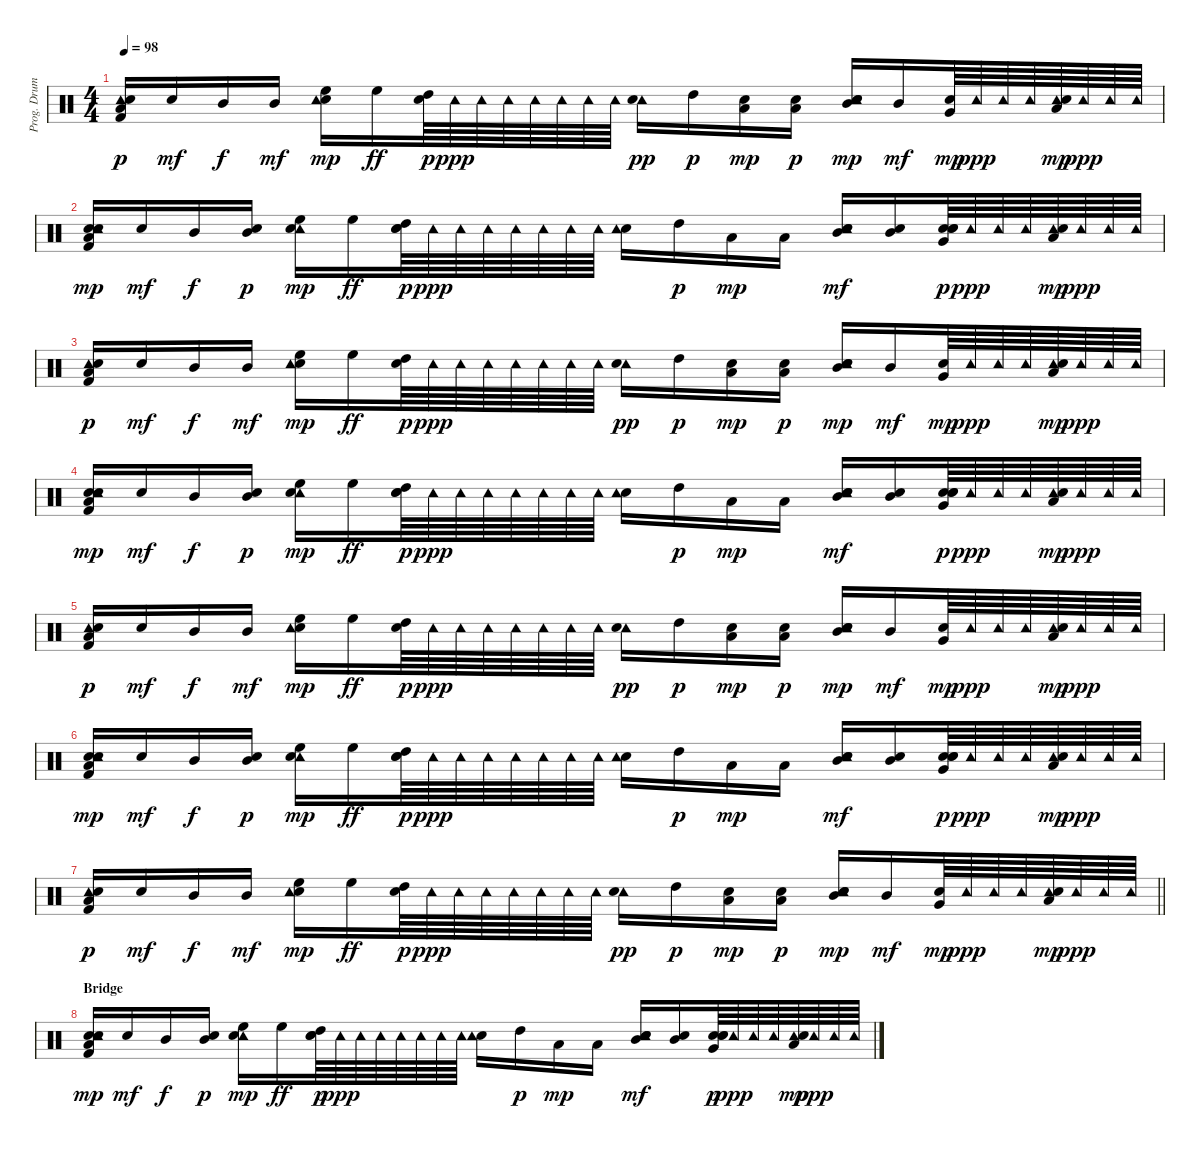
\track ("Prog. Drums" "Prog. Drum") {instrument percussion}
\staff {score}
\articulation defaults
\ts (4 4)
\tempo 98
\clef neutral
\ks c
("Tambourine (hit)" "Snare (hit)" "Low Floor Tom (hit)" "Kick (hit) 2").16{dy p} "Snare (hit)".16{dy mf} "Mid Tom (hit)".16{dy f} "Mid Tom (hit)".16{dy mf} ("Snare (hit) 2" "High Floor Tom (hit)" "Tambourine (hit)").16{dy mp} "High Floor Tom (hit)".16{dy ff} ("High Tom (hit)" "Snare (hit)").64{dy p} "Tambourine (hit)".64{dy ppp} "Tambourine (hit)".64 "Tambourine (hit)".64 "Tambourine (hit)".64 "Tambourine (hit)".64 "Tambourine (hit)".64 "Tambourine (hit)".64 ("Tambourine (hit)" "Snare (hit) 2").16{dy pp} "High Tom (hit)".16{dy p} ("Snare (hit)" "Low Tom (hit)").16{dy mp} ("Low Tom (hit)" "Snare (hit)").16{dy p} ("Snare (hit) 2" "Mid Tom (hit)" "Snare (hit)" "Tambourine (hit)").16{dy mp} "Mid Tom (hit)".16{dy mf} ("Snare (hit)" "Very Low Tom (hit)").64{dy mp} "Tambourine (hit)".64{dy ppp} "Tambourine (hit)".64 "Tambourine (hit)".64 ("Tambourine (hit)" "Snare (hit) 2" "Low Tom (hit)").64{dy mp} "Tambourine (hit)".64{dy ppp} "Tambourine (hit)".64 "Tambourine (hit)".64 |
("Snare (hit)" "Snare (hit)" "Tambourine (hit)" "Kick (hit) 2" "Low Floor Tom (hit)").16{dy mp} "Snare (hit)".16{dy mf} "Mid Tom (hit)".16{dy f} ("Mid Tom (hit)" "Snare (hit)").16{dy p} ("Tambourine (hit)" "High Floor Tom (hit)" "Snare (hit) 2").16{dy mp} "High Floor Tom (hit)".16{dy ff} ("High Tom (hit)" "Snare (hit)" "Snare (hit)").64{dy p} "Tambourine (hit)".64{dy ppp} "Tambourine (hit)".64 "Tambourine (hit)".64 "Tambourine (hit)".64 "Tambourine (hit)".64 "Tambourine (hit)".64 "Tambourine (hit)".64 ("Snare (hit) 2" "Tambourine (hit)").16 "High Tom (hit)".16{dy p} "Low Tom (hit)".16{dy mp} "Low Tom (hit)".16 ("Tambourine (hit)" "Snare (hit)" "Snare (hit) 2" "Mid Tom (hit)").16{dy mf} ("Snare (hit) 2" "Mid Tom (hit)").16 ("Snare (hit) 2" "Very Low Tom (hit)" "Snare (hit)" "Snare (hit)").64{dy p} "Tambourine (hit)".64{dy ppp} "Tambourine (hit)".64 "Tambourine (hit)".64 ("Tambourine (hit)" "Snare (hit) 2" "Low Tom (hit)").64{dy mp} "Tambourine (hit)".64{dy ppp} "Tambourine (hit)".64 "Tambourine (hit)".64 |
("Tambourine (hit)" "Snare (hit)" "Low Floor Tom (hit)" "Kick (hit) 2").16{dy p} "Snare (hit)".16{dy mf} "Mid Tom (hit)".16{dy f} "Mid Tom (hit)".16{dy mf} ("Snare (hit) 2" "High Floor Tom (hit)" "Tambourine (hit)").16{dy mp} "High Floor Tom (hit)".16{dy ff} ("High Tom (hit)" "Snare (hit)").64{dy p} "Tambourine (hit)".64{dy ppp} "Tambourine (hit)".64 "Tambourine (hit)".64 "Tambourine (hit)".64 "Tambourine (hit)".64 "Tambourine (hit)".64 "Tambourine (hit)".64 ("Tambourine (hit)" "Snare (hit) 2").16{dy pp} "High Tom (hit)".16{dy p} ("Snare (hit)" "Low Tom (hit)").16{dy mp} ("Low Tom (hit)" "Snare (hit)").16{dy p} ("Snare (hit) 2" "Mid Tom (hit)" "Snare (hit)" "Tambourine (hit)").16{dy mp} "Mid Tom (hit)".16{dy mf} ("Snare (hit)" "Very Low Tom (hit)").64{dy mp} "Tambourine (hit)".64{dy ppp} "Tambourine (hit)".64 "Tambourine (hit)".64 ("Tambourine (hit)" "Snare (hit) 2" "Low Tom (hit)").64{dy mp} "Tambourine (hit)".64{dy ppp} "Tambourine (hit)".64 "Tambourine (hit)".64 |
("Snare (hit)" "Snare (hit)" "Tambourine (hit)" "Kick (hit) 2" "Low Floor Tom (hit)").16{dy mp} "Snare (hit)".16{dy mf} "Mid Tom (hit)".16{dy f} ("Mid Tom (hit)" "Snare (hit)").16{dy p} ("Tambourine (hit)" "High Floor Tom (hit)" "Snare (hit) 2").16{dy mp} "High Floor Tom (hit)".16{dy ff} ("High Tom (hit)" "Snare (hit)" "Snare (hit)").64{dy p} "Tambourine (hit)".64{dy ppp} "Tambourine (hit)".64 "Tambourine (hit)".64 "Tambourine (hit)".64 "Tambourine (hit)".64 "Tambourine (hit)".64 "Tambourine (hit)".64 ("Snare (hit) 2" "Tambourine (hit)").16 "High Tom (hit)".16{dy p} "Low Tom (hit)".16{dy mp} "Low Tom (hit)".16 ("Tambourine (hit)" "Snare (hit)" "Snare (hit) 2" "Mid Tom (hit)").16{dy mf} ("Snare (hit) 2" "Mid Tom (hit)").16 ("Snare (hit) 2" "Very Low Tom (hit)" "Snare (hit)" "Snare (hit)").64{dy p} "Tambourine (hit)".64{dy ppp} "Tambourine (hit)".64 "Tambourine (hit)".64 ("Tambourine (hit)" "Snare (hit) 2" "Low Tom (hit)").64{dy mp} "Tambourine (hit)".64{dy ppp} "Tambourine (hit)".64 "Tambourine (hit)".64 |
("Tambourine (hit)" "Snare (hit)" "Low Floor Tom (hit)" "Kick (hit) 2").16{dy p} "Snare (hit)".16{dy mf} "Mid Tom (hit)".16{dy f} "Mid Tom (hit)".16{dy mf} ("Snare (hit) 2" "High Floor Tom (hit)" "Tambourine (hit)").16{dy mp} "High Floor Tom (hit)".16{dy ff} ("High Tom (hit)" "Snare (hit)").64{dy p} "Tambourine (hit)".64{dy ppp} "Tambourine (hit)".64 "Tambourine (hit)".64 "Tambourine (hit)".64 "Tambourine (hit)".64 "Tambourine (hit)".64 "Tambourine (hit)".64 ("Tambourine (hit)" "Snare (hit) 2").16{dy pp} "High Tom (hit)".16{dy p} ("Snare (hit)" "Low Tom (hit)").16{dy mp} ("Low Tom (hit)" "Snare (hit)").16{dy p} ("Snare (hit) 2" "Mid Tom (hit)" "Snare (hit)" "Tambourine (hit)").16{dy mp} "Mid Tom (hit)".16{dy mf} ("Snare (hit)" "Very Low Tom (hit)").64{dy mp} "Tambourine (hit)".64{dy ppp} "Tambourine (hit)".64 "Tambourine (hit)".64 ("Tambourine (hit)" "Snare (hit) 2" "Low Tom (hit)").64{dy mp} "Tambourine (hit)".64{dy ppp} "Tambourine (hit)".64 "Tambourine (hit)".64 |
("Snare (hit)" "Snare (hit)" "Tambourine (hit)" "Kick (hit) 2" "Low Floor Tom (hit)").16{dy mp} "Snare (hit)".16{dy mf} "Mid Tom (hit)".16{dy f} ("Mid Tom (hit)" "Snare (hit)").16{dy p} ("Tambourine (hit)" "High Floor Tom (hit)" "Snare (hit) 2").16{dy mp} "High Floor Tom (hit)".16{dy ff} ("High Tom (hit)" "Snare (hit)" "Snare (hit)").64{dy p} "Tambourine (hit)".64{dy ppp} "Tambourine (hit)".64 "Tambourine (hit)".64 "Tambourine (hit)".64 "Tambourine (hit)".64 "Tambourine (hit)".64 "Tambourine (hit)".64 ("Snare (hit) 2" "Tambourine (hit)").16 "High Tom (hit)".16{dy p} "Low Tom (hit)".16{dy mp} "Low Tom (hit)".16 ("Tambourine (hit)" "Snare (hit)" "Snare (hit) 2" "Mid Tom (hit)").16{dy mf} ("Snare (hit) 2" "Mid Tom (hit)").16 ("Snare (hit) 2" "Very Low Tom (hit)" "Snare (hit)" "Snare (hit)").64{dy p} "Tambourine (hit)".64{dy ppp} "Tambourine (hit)".64 "Tambourine (hit)".64 ("Tambourine (hit)" "Snare (hit) 2" "Low Tom (hit)").64{dy mp} "Tambourine (hit)".64{dy ppp} "Tambourine (hit)".64 "Tambourine (hit)".64 |
\barLineRight lightlight
("Tambourine (hit)" "Snare (hit)" "Low Floor Tom (hit)" "Kick (hit) 2").16{dy p} "Snare (hit)".16{dy mf} "Mid Tom (hit)".16{dy f} "Mid Tom (hit)".16{dy mf} ("Snare (hit) 2" "High Floor Tom (hit)" "Tambourine (hit)").16{dy mp} "High Floor Tom (hit)".16{dy ff} ("High Tom (hit)" "Snare (hit)").64{dy p} "Tambourine (hit)".64{dy ppp} "Tambourine (hit)".64 "Tambourine (hit)".64 "Tambourine (hit)".64 "Tambourine (hit)".64 "Tambourine (hit)".64 "Tambourine (hit)".64 ("Tambourine (hit)" "Snare (hit) 2").16{dy pp} "High Tom (hit)".16{dy p} ("Snare (hit)" "Low Tom (hit)").16{dy mp} ("Low Tom (hit)" "Snare (hit)").16{dy p} ("Snare (hit) 2" "Mid Tom (hit)" "Snare (hit)" "Tambourine (hit)").16{dy mp} "Mid Tom (hit)".16{dy mf} ("Snare (hit)" "Very Low Tom (hit)").64{dy mp} "Tambourine (hit)".64{dy ppp} "Tambourine (hit)".64 "Tambourine (hit)".64 ("Tambourine (hit)" "Snare (hit) 2" "Low Tom (hit)").64{dy mp} "Tambourine (hit)".64{dy ppp} "Tambourine (hit)".64 "Tambourine (hit)".64 |
\section ("" "Bridge")
("Snare (hit)" "Snare (hit)" "Tambourine (hit)" "Kick (hit) 2" "Low Floor Tom (hit)").16{dy mp} "Snare (hit)".16{dy mf} "Mid Tom (hit)".16{dy f} ("Mid Tom (hit)" "Snare (hit)").16{dy p} ("Tambourine (hit)" "High Floor Tom (hit)" "Snare (hit) 2").16{dy mp} "High Floor Tom (hit)".16{dy ff} ("High Tom (hit)" "Snare (hit)" "Snare (hit)").64{dy p} "Tambourine (hit)".64{dy ppp} "Tambourine (hit)".64 "Tambourine (hit)".64 "Tambourine (hit)".64 "Tambourine (hit)".64 "Tambourine (hit)".64 "Tambourine (hit)".64 ("Snare (hit) 2" "Tambourine (hit)").16 "High Tom (hit)".16{dy p} "Low Tom (hit)".16{dy mp} "Low Tom (hit)".16 ("Tambourine (hit)" "Snare (hit)" "Snare (hit) 2" "Mid Tom (hit)").16{dy mf} ("Snare (hit) 2" "Mid Tom (hit)").16 ("Snare (hit) 2" "Very Low Tom (hit)" "Snare (hit)" "Snare (hit)").64{dy p} "Tambourine (hit)".64{dy ppp} "Tambourine (hit)".64 "Tambourine (hit)".64 ("Tambourine (hit)" "Snare (hit) 2" "Low Tom (hit)").64{dy mp} "Tambourine (hit)".64{dy ppp} "Tambourine (hit)".64 "Tambourine (hit)".64
